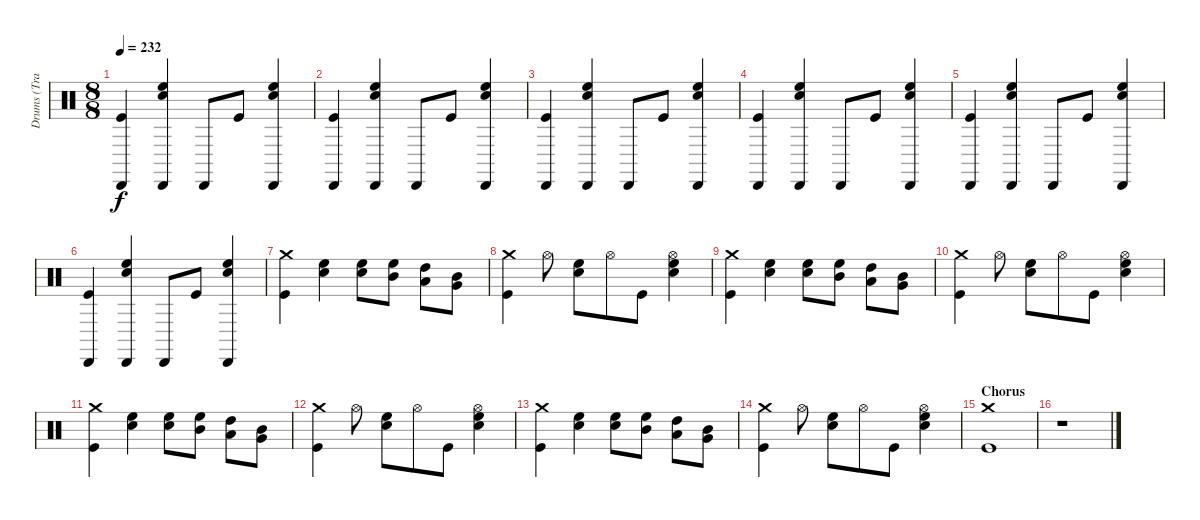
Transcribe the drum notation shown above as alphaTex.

\track ("Drums (Travis)" "Drums (Tra") {instrument percussion}
\staff {score}
\articulation defaults
\ts (8 8)
\tempo 232
\clef neutral
\ks c
("Kick (hit)" "Cabasa (hit)").4{dy f} ("Electric Snare (hit)" "High Floor Tom (hit)" "Cabasa (hit)").4 "Cabasa (hit)".8 "Kick (hit)".8 ("High Floor Tom (hit)" "Electric Snare (hit)" "Cabasa (hit)").4 |
("Kick (hit)" "Cabasa (hit)").4 ("Electric Snare (hit)" "High Floor Tom (hit)" "Cabasa (hit)").4 "Cabasa (hit)".8 "Kick (hit)".8 ("High Floor Tom (hit)" "Electric Snare (hit)" "Cabasa (hit)").4 |
("Kick (hit)" "Cabasa (hit)").4 ("Electric Snare (hit)" "High Floor Tom (hit)" "Cabasa (hit)").4 "Cabasa (hit)".8 "Kick (hit)".8 ("High Floor Tom (hit)" "Electric Snare (hit)" "Cabasa (hit)").4 |
("Kick (hit)" "Cabasa (hit)").4 ("Electric Snare (hit)" "High Floor Tom (hit)" "Cabasa (hit)").4 "Cabasa (hit)".8 "Kick (hit)".8 ("High Floor Tom (hit)" "Electric Snare (hit)" "Cabasa (hit)").4 |
("Kick (hit)" "Cabasa (hit)").4 ("Electric Snare (hit)" "High Floor Tom (hit)" "Cabasa (hit)").4 "Cabasa (hit)".8 "Kick (hit)".8 ("High Floor Tom (hit)" "Electric Snare (hit)" "Cabasa (hit)").4 |
("Kick (hit)" "Cabasa (hit)").4 ("Electric Snare (hit)" "High Floor Tom (hit)" "Cabasa (hit)").4 "Cabasa (hit)".8 "Kick (hit)".8 ("High Floor Tom (hit)" "Electric Snare (hit)" "Cabasa (hit)").4 |
("Crash medium (hit)" "Kick (hit)").4 ("High Floor Tom (hit)" "Electric Snare (hit)").4 ("Electric Snare (hit)" "High Floor Tom (hit)").8 ("Mid Tom (hit)" "High Floor Tom (hit)").8 ("High Tom (hit)" "Low Tom (hit)").8 ("Very Low Tom (hit)" "Mid Tom (hit)").8 |
("Kick (hit)" "Crash medium (hit)").4 "Hi-Hat (open)".8 ("High Floor Tom (hit)" "Electric Snare (hit)").8 "Hi-Hat (open)".8 "Kick (hit)".8 ("High Floor Tom (hit)" "Electric Snare (hit)" "Hi-Hat (open)").4 |
("Crash medium (hit)" "Kick (hit)").4 ("High Floor Tom (hit)" "Electric Snare (hit)").4 ("Electric Snare (hit)" "High Floor Tom (hit)").8 ("Mid Tom (hit)" "High Floor Tom (hit)").8 ("High Tom (hit)" "Low Tom (hit)").8 ("Very Low Tom (hit)" "Mid Tom (hit)").8 |
("Kick (hit)" "Crash medium (hit)").4 "Hi-Hat (open)".8 ("High Floor Tom (hit)" "Electric Snare (hit)").8 "Hi-Hat (open)".8 "Kick (hit)".8 ("High Floor Tom (hit)" "Electric Snare (hit)" "Hi-Hat (open)").4 |
("Crash medium (hit)" "Kick (hit)").4 ("High Floor Tom (hit)" "Electric Snare (hit)").4 ("Electric Snare (hit)" "High Floor Tom (hit)").8 ("Mid Tom (hit)" "High Floor Tom (hit)").8 ("High Tom (hit)" "Low Tom (hit)").8 ("Very Low Tom (hit)" "Mid Tom (hit)").8 |
("Kick (hit)" "Crash medium (hit)").4 "Hi-Hat (open)".8 ("High Floor Tom (hit)" "Electric Snare (hit)").8 "Hi-Hat (open)".8 "Kick (hit)".8 ("High Floor Tom (hit)" "Electric Snare (hit)" "Hi-Hat (open)").4 |
("Crash medium (hit)" "Kick (hit)").4 ("High Floor Tom (hit)" "Electric Snare (hit)").4 ("Electric Snare (hit)" "High Floor Tom (hit)").8 ("Mid Tom (hit)" "High Floor Tom (hit)").8 ("High Tom (hit)" "Low Tom (hit)").8 ("Very Low Tom (hit)" "Mid Tom (hit)").8 |
("Kick (hit)" "Crash medium (hit)").4 "Hi-Hat (open)".8 ("High Floor Tom (hit)" "Electric Snare (hit)").8 "Hi-Hat (open)".8 "Kick (hit)".8 ("High Floor Tom (hit)" "Electric Snare (hit)" "Hi-Hat (open)").4 |
\section ("" "Chorus")
("Kick (hit)" "Crash medium (hit)").1 |
r.1
